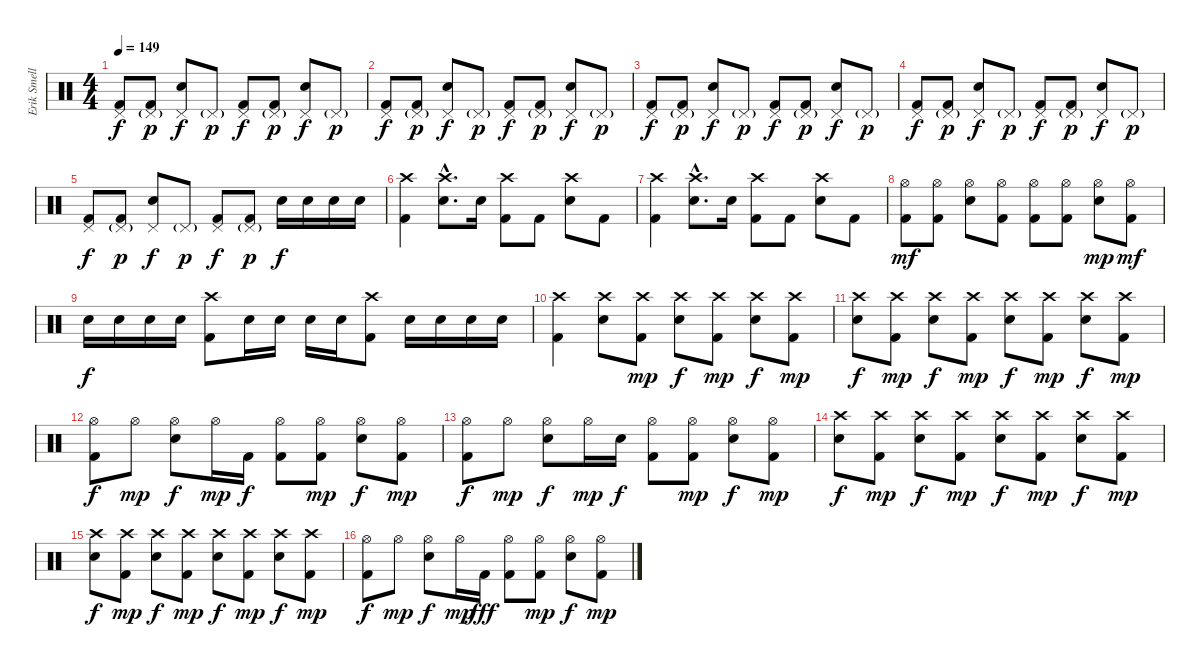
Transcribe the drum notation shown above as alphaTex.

\track ("Erik Smelly - Drums" "Erik Smell") {instrument percussion}
\staff {score}
\articulation defaults
\ts (4 4)
\tempo 149
\clef neutral
\ks c
("Pedal Hi-Hat (hit)" "Kick (hit) 2").8{dy f} ("Pedal Hi-Hat (hit)"{g} "Kick (hit) 2").8{dy p} ("Pedal Hi-Hat (hit)" "Electric Snare (hit)").8{dy f} "Pedal Hi-Hat (hit)"{g}.8{dy p} ("Pedal Hi-Hat (hit)" "Kick (hit) 2").8{dy f} ("Pedal Hi-Hat (hit)"{g} "Kick (hit) 2").8{dy p} ("Pedal Hi-Hat (hit)" "Electric Snare (hit)").8{dy f} "Pedal Hi-Hat (hit)"{g}.8{dy p} |
("Pedal Hi-Hat (hit)" "Kick (hit) 2").8{dy f} ("Pedal Hi-Hat (hit)"{g} "Kick (hit) 2").8{dy p} ("Pedal Hi-Hat (hit)" "Electric Snare (hit)").8{dy f} "Pedal Hi-Hat (hit)"{g}.8{dy p} ("Pedal Hi-Hat (hit)" "Kick (hit) 2").8{dy f} ("Pedal Hi-Hat (hit)"{g} "Kick (hit) 2").8{dy p} ("Pedal Hi-Hat (hit)" "Electric Snare (hit)").8{dy f} "Pedal Hi-Hat (hit)"{g}.8{dy p} |
("Pedal Hi-Hat (hit)" "Kick (hit) 2").8{dy f} ("Pedal Hi-Hat (hit)"{g} "Kick (hit) 2").8{dy p} ("Pedal Hi-Hat (hit)" "Electric Snare (hit)").8{dy f} "Pedal Hi-Hat (hit)"{g}.8{dy p} ("Pedal Hi-Hat (hit)" "Kick (hit) 2").8{dy f} ("Pedal Hi-Hat (hit)"{g} "Kick (hit) 2").8{dy p} ("Pedal Hi-Hat (hit)" "Electric Snare (hit)").8{dy f} "Pedal Hi-Hat (hit)"{g}.8{dy p} |
("Pedal Hi-Hat (hit)" "Kick (hit) 2").8{dy f} ("Pedal Hi-Hat (hit)"{g} "Kick (hit) 2").8{dy p} ("Pedal Hi-Hat (hit)" "Electric Snare (hit)").8{dy f} "Pedal Hi-Hat (hit)"{g}.8{dy p} ("Pedal Hi-Hat (hit)" "Kick (hit) 2").8{dy f} ("Pedal Hi-Hat (hit)"{g} "Kick (hit) 2").8{dy p} ("Pedal Hi-Hat (hit)" "Electric Snare (hit)").8{dy f} "Pedal Hi-Hat (hit)"{g}.8{dy p} |
("Pedal Hi-Hat (hit)" "Kick (hit) 2").8{dy f} ("Pedal Hi-Hat (hit)"{g} "Kick (hit) 2").8{dy p} ("Pedal Hi-Hat (hit)" "Electric Snare (hit)").8{dy f} "Pedal Hi-Hat (hit)"{g}.8{dy p} ("Pedal Hi-Hat (hit)" "Kick (hit) 2").8{dy f} ("Pedal Hi-Hat (hit)"{g} "Kick (hit) 2").8{dy p} "Electric Snare (hit)".16{dy f} "Electric Snare (hit)".16 "Electric Snare (hit)".16 "Electric Snare (hit)".16 |
("Crash high (hit)" "Kick (hit) 2").4 ("Crash high (hit)"{hac} "Electric Snare (hit)"{hac}).8{d} "Electric Snare (hit)".16 ("Crash high (hit)" "Kick (hit) 2").8 "Kick (hit) 2".8 ("Crash high (hit)" "Electric Snare (hit)").8 "Kick (hit) 2".8 |
("Crash high (hit)" "Kick (hit) 2").4 ("Crash high (hit)"{hac} "Electric Snare (hit)"{hac}).8{d} "Electric Snare (hit)".16 ("Crash high (hit)" "Kick (hit) 2").8 "Kick (hit) 2".8 ("Crash high (hit)" "Electric Snare (hit)").8 "Kick (hit) 2".8 |
("Hi-Hat (open)" "Kick (hit) 2").8{dy mf} ("Hi-Hat (open)" "Kick (hit) 2").8 ("Hi-Hat (open)" "Electric Snare (hit)").8 ("Hi-Hat (open)" "Kick (hit) 2").8 ("Hi-Hat (open)" "Kick (hit) 2").8 ("Hi-Hat (open)" "Kick (hit) 2").8 ("Hi-Hat (open)" "Electric Snare (hit)").8{dy mp} ("Hi-Hat (open)" "Kick (hit) 2").8{dy mf} |
"Electric Snare (hit)".16{dy f} "Electric Snare (hit)".16 "Electric Snare (hit)".16 "Electric Snare (hit)".16 ("Crash high (hit)" "Kick (hit) 2").8 "Electric Snare (hit)".16 "Electric Snare (hit)".16 "Electric Snare (hit)".16 "Electric Snare (hit)".16 ("Crash high (hit)" "Kick (hit) 2").8 "Electric Snare (hit)".16 "Electric Snare (hit)".16 "Electric Snare (hit)".16 "Electric Snare (hit)".16 |
("Crash high (hit)" "Kick (hit) 2").4 ("Crash high (hit)" "Electric Snare (hit)").8 ("Crash high (hit)" "Kick (hit) 2").8{dy mp} ("Crash high (hit)" "Electric Snare (hit)").8{dy f} ("Crash high (hit)" "Kick (hit) 2").8{dy mp} ("Crash high (hit)" "Electric Snare (hit)").8{dy f} ("Crash high (hit)" "Kick (hit) 2").8{dy mp} |
("Crash high (hit)" "Electric Snare (hit)").8{dy f} ("Crash high (hit)" "Kick (hit) 2").8{dy mp} ("Crash high (hit)" "Electric Snare (hit)").8{dy f} ("Crash high (hit)" "Kick (hit) 2").8{dy mp} ("Crash high (hit)" "Electric Snare (hit)").8{dy f} ("Crash high (hit)" "Kick (hit) 2").8{dy mp} ("Crash high (hit)" "Electric Snare (hit)").8{dy f} ("Crash high (hit)" "Kick (hit) 2").8{dy mp} |
("Hi-Hat (open)" "Kick (hit) 2").8{dy f} "Hi-Hat (open)".8{dy mp} ("Hi-Hat (open)" "Electric Snare (hit)").8{dy f} "Hi-Hat (open)".16{dy mp} "Kick (hit) 2".16{dy f} ("Hi-Hat (open)" "Kick (hit) 2").8 ("Hi-Hat (open)" "Kick (hit) 2").8{dy mp} ("Hi-Hat (open)" "Electric Snare (hit)").8{dy f} ("Hi-Hat (open)" "Kick (hit) 2").8{dy mp} |
("Hi-Hat (open)" "Kick (hit) 2").8{dy f} "Hi-Hat (open)".8{dy mp} ("Hi-Hat (open)" "Electric Snare (hit)").8{dy f} "Hi-Hat (open)".16{dy mp} "Electric Snare (hit)".16{dy f} ("Hi-Hat (open)" "Kick (hit) 2").8 ("Hi-Hat (open)" "Kick (hit) 2").8{dy mp} ("Hi-Hat (open)" "Electric Snare (hit)").8{dy f} ("Hi-Hat (open)" "Kick (hit) 2").8{dy mp} |
("Crash high (hit)" "Electric Snare (hit)").8{dy f} ("Crash high (hit)" "Kick (hit) 2").8{dy mp} ("Crash high (hit)" "Electric Snare (hit)").8{dy f} ("Crash high (hit)" "Kick (hit) 2").8{dy mp} ("Crash high (hit)" "Electric Snare (hit)").8{dy f} ("Crash high (hit)" "Kick (hit) 2").8{dy mp} ("Crash high (hit)" "Electric Snare (hit)").8{dy f} ("Crash high (hit)" "Kick (hit) 2").8{dy mp} |
("Crash high (hit)" "Electric Snare (hit)").8{dy f} ("Crash high (hit)" "Kick (hit) 2").8{dy mp} ("Crash high (hit)" "Electric Snare (hit)").8{dy f} ("Crash high (hit)" "Kick (hit) 2").8{dy mp} ("Crash high (hit)" "Electric Snare (hit)").8{dy f} ("Crash high (hit)" "Kick (hit) 2").8{dy mp} ("Crash high (hit)" "Electric Snare (hit)").8{dy f} ("Crash high (hit)" "Kick (hit) 2").8{dy mp} |
("Hi-Hat (open)" "Kick (hit) 2").8{dy f} "Hi-Hat (open)".8{dy mp} ("Hi-Hat (open)" "Electric Snare (hit)").8{dy f} "Hi-Hat (open)".16{dy mp} "Kick (hit) 2".16{dy fff} ("Hi-Hat (open)" "Kick (hit) 2").8 ("Hi-Hat (open)" "Kick (hit) 2").8{dy mp} ("Hi-Hat (open)" "Electric Snare (hit)").8{dy f} ("Hi-Hat (open)" "Kick (hit) 2").8{dy mp}
